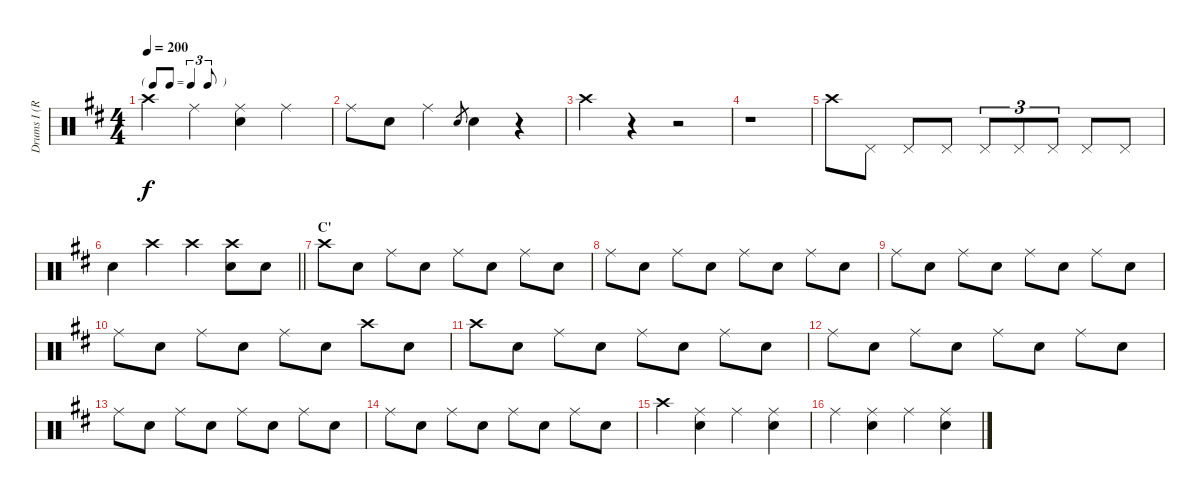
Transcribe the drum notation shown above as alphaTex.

\track ("Drums I (Ruka)" "Drums I (R") {instrument percussion}
\staff {score}
\articulation defaults
\ts (4 4)
\tf triplet8th
\tempo 200
\clef neutral
\ks d "Crash high (hit)".4{dy f} "Ride (middle)".4
("Ride (middle)" "Snare (hit) 2").4 "Ride (middle)".4 |
"Ride (middle)".8 "Snare (hit) 2".8 "Ride (middle)".4 "Snare (hit) 2".8{gr} "Snare (hit) 2".4 r.4 |
"Crash high (hit)".4 r.4 r.2 |
r.1 |
"Crash high (hit)".8 "Pedal Hi-Hat (hit)".8 "Pedal Hi-Hat (hit)".8 "Pedal Hi-Hat (hit)".8 "Pedal Hi-Hat (hit)".8{tu (3 2)} "Pedal Hi-Hat (hit)".8{tu (3 2)} "Pedal Hi-Hat (hit)".8{tu (3 2)} "Pedal Hi-Hat (hit)".8 "Pedal Hi-Hat (hit)".8 |
\barLineRight lightlight "Snare (hit) 2".4 "Crash high (hit)".4 "Crash high (hit)".4
("Crash high (hit)" "Snare (hit) 2").8 "Snare (hit) 2".8 |
\section ("" "C'")
"Crash high (hit)".8 "Snare (hit) 2".8 "Ride (middle)".8 "Snare (hit) 2".8 "Ride (middle)".8 "Snare (hit) 2".8 "Ride (middle)".8 "Snare (hit) 2".8 |
"Ride (middle)".8 "Snare (hit) 2".8 "Ride (middle)".8 "Snare (hit) 2".8 "Ride (middle)".8 "Snare (hit) 2".8 "Ride (middle)".8 "Snare (hit) 2".8 |
"Ride (middle)".8 "Snare (hit) 2".8 "Ride (middle)".8 "Snare (hit) 2".8 "Ride (middle)".8 "Snare (hit) 2".8 "Ride (middle)".8 "Snare (hit) 2".8 |
"Ride (middle)".8 "Snare (hit) 2".8 "Ride (middle)".8 "Snare (hit) 2".8 "Ride (middle)".8 "Snare (hit) 2".8 "Crash high (hit)".8 "Snare (hit) 2".8 |
"Crash high (hit)".8 "Snare (hit) 2".8 "Ride (middle)".8 "Snare (hit) 2".8 "Ride (middle)".8 "Snare (hit) 2".8 "Ride (middle)".8 "Snare (hit) 2".8 |
"Ride (middle)".8 "Snare (hit) 2".8 "Ride (middle)".8 "Snare (hit) 2".8 "Ride (middle)".8 "Snare (hit) 2".8 "Ride (middle)".8 "Snare (hit) 2".8 |
"Ride (middle)".8 "Snare (hit) 2".8 "Ride (middle)".8 "Snare (hit) 2".8 "Ride (middle)".8 "Snare (hit) 2".8 "Ride (middle)".8 "Snare (hit) 2".8 |
"Ride (middle)".8 "Snare (hit) 2".8 "Ride (middle)".8 "Snare (hit) 2".8 "Ride (middle)".8 "Snare (hit) 2".8 "Ride (middle)".8 "Snare (hit) 2".8 |
"Crash high (hit)".4 ("Ride (middle)" "Snare (hit) 2").4 "Ride (middle)".4 ("Ride (middle)" "Snare (hit) 2").4 |
"Ride (middle)".4 ("Ride (middle)" "Snare (hit) 2").4 "Ride (middle)".4 ("Ride (middle)" "Snare (hit) 2").4
